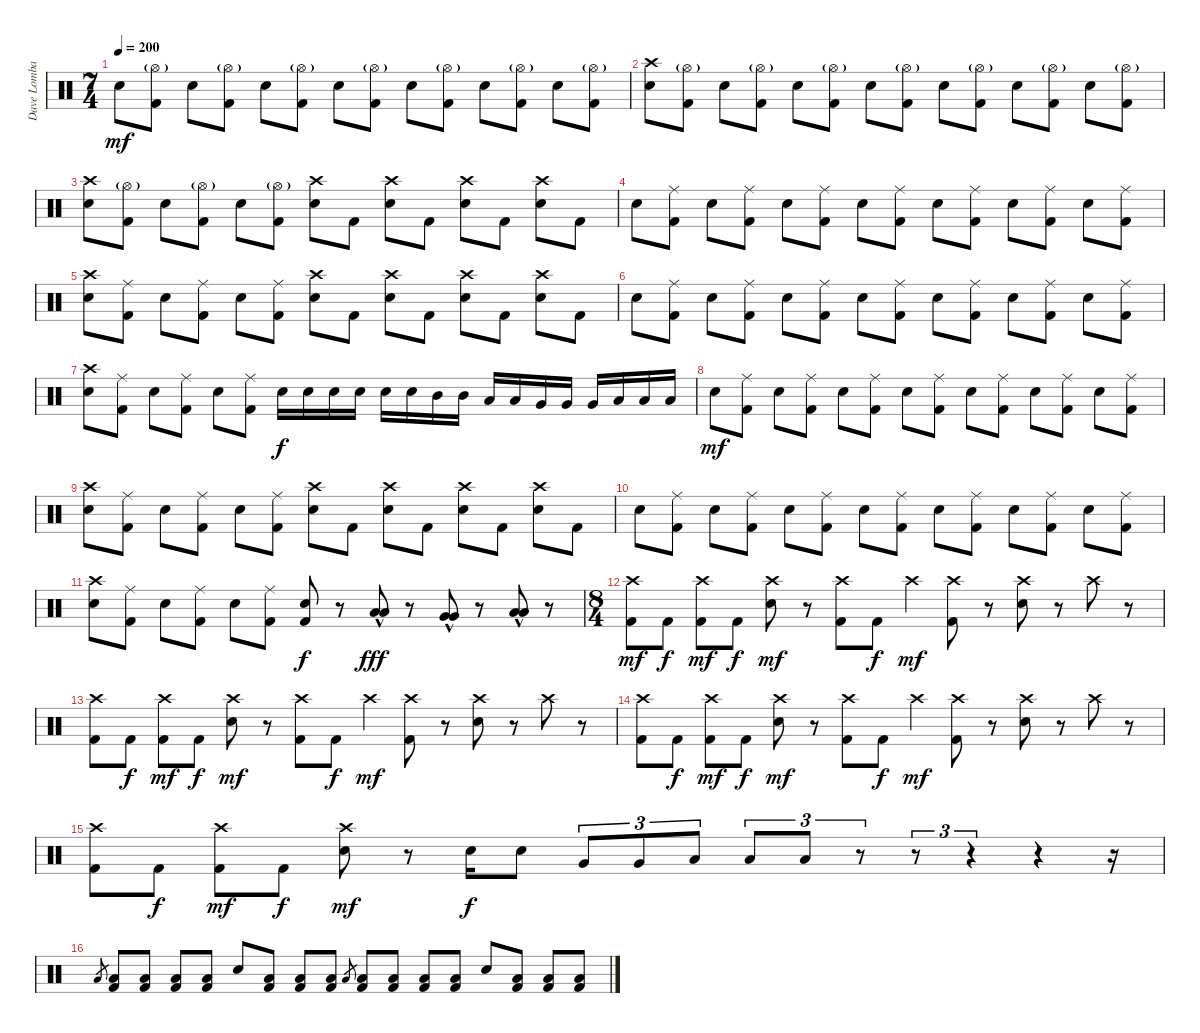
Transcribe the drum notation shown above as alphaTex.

\track ("Dave Lombardo" "Dave Lomba") {instrument percussion}
\staff {score}
\articulation defaults
\ts (7 4)
\tempo 200
\clef neutral
\ks c "Snare (hit) 2".8{dy mf}
("Hi-Hat (open)"{g} "Kick (hit) 2").8 "Snare (hit) 2".8 ("Hi-Hat (open)"{g} "Kick (hit) 2").8 "Snare (hit) 2".8 ("Hi-Hat (open)"{g} "Kick (hit) 2").8 "Snare (hit) 2".8 ("Hi-Hat (open)"{g} "Kick (hit) 2").8 "Snare (hit) 2".8 ("Hi-Hat (open)"{g} "Kick (hit) 2").8 "Snare (hit) 2".8 ("Hi-Hat (open)"{g} "Kick (hit) 2").8 "Snare (hit) 2".8 ("Hi-Hat (open)"{g} "Kick (hit) 2").8 |
("Crash high (hit)" "Snare (hit) 2").8 ("Hi-Hat (open)"{g} "Kick (hit) 2").8 "Snare (hit) 2".8 ("Hi-Hat (open)"{g} "Kick (hit) 2").8 "Snare (hit) 2".8 ("Hi-Hat (open)"{g} "Kick (hit) 2").8 "Snare (hit) 2".8 ("Hi-Hat (open)"{g} "Kick (hit) 2").8 "Snare (hit) 2".8 ("Hi-Hat (open)"{g} "Kick (hit) 2").8 "Snare (hit) 2".8 ("Hi-Hat (open)"{g} "Kick (hit) 2").8 "Snare (hit) 2".8 ("Hi-Hat (open)"{g} "Kick (hit) 2").8 |
("Crash high (hit)" "Snare (hit) 2").8 ("Hi-Hat (open)"{g} "Kick (hit) 2").8 "Snare (hit) 2".8 ("Hi-Hat (open)"{g} "Kick (hit) 2").8 "Snare (hit) 2".8 ("Hi-Hat (open)"{g} "Kick (hit) 2").8 ("Crash high (hit)" "Snare (hit) 2").8 "Kick (hit) 2".8 ("Crash high (hit)" "Snare (hit) 2").8 "Kick (hit) 2".8 ("Crash high (hit)" "Snare (hit) 2").8 "Kick (hit) 2".8 ("Crash high (hit)" "Snare (hit) 2").8 "Kick (hit) 2".8 |
"Snare (hit) 2".8 ("Ride (middle)" "Kick (hit) 2").8 "Snare (hit) 2".8 ("Ride (middle)" "Kick (hit) 2").8 "Snare (hit) 2".8 ("Ride (middle)" "Kick (hit) 2").8 "Snare (hit) 2".8 ("Ride (middle)" "Kick (hit) 2").8 "Snare (hit) 2".8 ("Ride (middle)" "Kick (hit) 2").8 "Snare (hit) 2".8 ("Ride (middle)" "Kick (hit) 2").8 "Snare (hit) 2".8 ("Ride (middle)" "Kick (hit) 2").8 |
("Crash high (hit)" "Snare (hit) 2").8 ("Ride (middle)" "Kick (hit) 2").8 "Snare (hit) 2".8 ("Ride (middle)" "Kick (hit) 2").8 "Snare (hit) 2".8 ("Ride (middle)" "Kick (hit) 2").8 ("Crash high (hit)" "Snare (hit) 2").8 "Kick (hit) 2".8 ("Crash high (hit)" "Snare (hit) 2").8 "Kick (hit) 2".8 ("Crash high (hit)" "Snare (hit) 2").8 "Kick (hit) 2".8 ("Crash high (hit)" "Snare (hit) 2").8 "Kick (hit) 2".8 |
"Snare (hit) 2".8 ("Ride (middle)" "Kick (hit) 2").8 "Snare (hit) 2".8 ("Ride (middle)" "Kick (hit) 2").8 "Snare (hit) 2".8 ("Ride (middle)" "Kick (hit) 2").8 "Snare (hit) 2".8 ("Ride (middle)" "Kick (hit) 2").8 "Snare (hit) 2".8 ("Ride (middle)" "Kick (hit) 2").8 "Snare (hit) 2".8 ("Ride (middle)" "Kick (hit) 2").8 "Snare (hit) 2".8 ("Ride (middle)" "Kick (hit) 2").8 |
("Crash high (hit)" "Snare (hit) 2").8 ("Ride (middle)" "Kick (hit) 2").8 "Snare (hit) 2".8 ("Ride (middle)" "Kick (hit) 2").8 "Snare (hit) 2".8 ("Ride (middle)" "Kick (hit) 2").8 "Snare (hit) 2".16{dy f} "Snare (hit) 2".16 "Snare (hit) 2".16 "Snare (hit) 2".16 "Electric Snare (hit)".16 "Electric Snare (hit)".16 "Mid Tom (hit)".16 "Mid Tom (hit)".16 "Low Tom (hit)".16 "Low Tom (hit)".16 "Very Low Tom (hit)".16 "Very Low Tom (hit)".16 "Very Low Tom (hit)".16 "Low Floor Tom (hit)".16 "Low Floor Tom (hit)".16 "Low Floor Tom (hit)".16 |
"Snare (hit) 2".8{dy mf} ("Ride (middle)" "Kick (hit) 2").8 "Snare (hit) 2".8 ("Ride (middle)" "Kick (hit) 2").8 "Snare (hit) 2".8 ("Ride (middle)" "Kick (hit) 2").8 "Snare (hit) 2".8 ("Ride (middle)" "Kick (hit) 2").8 "Snare (hit) 2".8 ("Ride (middle)" "Kick (hit) 2").8 "Snare (hit) 2".8 ("Ride (middle)" "Kick (hit) 2").8 "Snare (hit) 2".8 ("Ride (middle)" "Kick (hit) 2").8 |
("Crash high (hit)" "Snare (hit) 2").8 ("Ride (middle)" "Kick (hit) 2").8 "Snare (hit) 2".8 ("Ride (middle)" "Kick (hit) 2").8 "Snare (hit) 2".8 ("Ride (middle)" "Kick (hit) 2").8 ("Crash high (hit)" "Snare (hit) 2").8 "Kick (hit) 2".8 ("Crash high (hit)" "Snare (hit) 2").8 "Kick (hit) 2".8 ("Crash high (hit)" "Snare (hit) 2").8 "Kick (hit) 2".8 ("Crash high (hit)" "Snare (hit) 2").8 "Kick (hit) 2".8 |
"Snare (hit) 2".8 ("Ride (middle)" "Kick (hit) 2").8 "Snare (hit) 2".8 ("Ride (middle)" "Kick (hit) 2").8 "Snare (hit) 2".8 ("Ride (middle)" "Kick (hit) 2").8 "Snare (hit) 2".8 ("Ride (middle)" "Kick (hit) 2").8 "Snare (hit) 2".8 ("Ride (middle)" "Kick (hit) 2").8 "Snare (hit) 2".8 ("Ride (middle)" "Kick (hit) 2").8 "Snare (hit) 2".8 ("Ride (middle)" "Kick (hit) 2").8 |
("Crash high (hit)" "Snare (hit) 2").8 ("Ride (middle)" "Kick (hit) 2").8 "Snare (hit) 2".8 ("Ride (middle)" "Kick (hit) 2").8 "Snare (hit) 2".8 ("Ride (middle)" "Kick (hit) 2").8 ("Kick (hit) 2" "Snare (hit) 2").8{dy f} r.8 ("Low Tom (hit)" "Low Tom (hit)"{hac}).8{dy fff} r.8 ("Very Low Tom (hit)" "Very Low Tom (hit)"{hac}).8 r.8 ("Low Floor Tom (hit)" "Low Floor Tom (hit)"{hac}).8 r.8 |
\ts (8 4)
("Crash high (hit)" "Kick (hit) 2").8{dy mf} "Kick (hit) 2".8{dy f} ("Crash high (hit)" "Kick (hit) 2").8{dy mf} "Kick (hit) 2".8{dy f} ("Crash high (hit)" "Snare (hit) 2").8{dy mf} r.8 ("Crash high (hit)" "Kick (hit) 2").8 "Kick (hit) 2".8{dy f} "Crash high (hit)".4{dy mf} ("Crash high (hit)" "Kick (hit) 2").8 r.8 ("Crash high (hit)" "Snare (hit) 2").8 r.8 "Crash high (hit)".8 r.8 |
("Crash high (hit)" "Kick (hit) 2").8 "Kick (hit) 2".8{dy f} ("Crash high (hit)" "Kick (hit) 2").8{dy mf} "Kick (hit) 2".8{dy f} ("Crash high (hit)" "Snare (hit) 2").8{dy mf} r.8 ("Crash high (hit)" "Kick (hit) 2").8 "Kick (hit) 2".8{dy f} "Crash high (hit)".4{dy mf} ("Crash high (hit)" "Kick (hit) 2").8 r.8 ("Crash high (hit)" "Snare (hit) 2").8 r.8 "Crash high (hit)".8 r.8 |
("Crash high (hit)" "Kick (hit) 2").8 "Kick (hit) 2".8{dy f} ("Crash high (hit)" "Kick (hit) 2").8{dy mf} "Kick (hit) 2".8{dy f} ("Crash high (hit)" "Snare (hit) 2").8{dy mf} r.8 ("Crash high (hit)" "Kick (hit) 2").8 "Kick (hit) 2".8{dy f} "Crash high (hit)".4{dy mf} ("Crash high (hit)" "Kick (hit) 2").8 r.8 ("Crash high (hit)" "Snare (hit) 2").8 r.8 "Crash high (hit)".8 r.8 |
("Crash high (hit)" "Kick (hit) 2").8 "Kick (hit) 2".8{dy f} ("Crash high (hit)" "Kick (hit) 2").8{dy mf} "Kick (hit) 2".8{dy f} ("Crash high (hit)" "Snare (hit) 2").8{dy mf} r.8 "Snare (hit) 2".16{dy f} "Snare (hit) 2".8 "Very Low Tom (hit)".8{tu (3 2)} "Very Low Tom (hit)".8{tu (3 2)} "Low Floor Tom (hit)".8{tu (3 2)} "Low Floor Tom (hit)".8{tu (3 2)} "Low Floor Tom (hit)".8{tu (3 2)} r.8{tu (3 2)} r.8{tu (3 2)} r.4{tu (3 2)} r.4 r.16 |
"Low Floor Tom (hit)".8{gr} ("Low Floor Tom (hit)" "Kick (hit) 2").8 ("Low Floor Tom (hit)" "Kick (hit) 2").8 ("Low Floor Tom (hit)" "Kick (hit) 2").8 ("Low Floor Tom (hit)" "Kick (hit) 2").8 "Electric Snare (hit)".8 ("Low Floor Tom (hit)" "Kick (hit) 2").8 ("Low Floor Tom (hit)" "Kick (hit) 2").8 ("Low Floor Tom (hit)" "Kick (hit) 2").8 "Low Floor Tom (hit)".8{gr} ("Low Floor Tom (hit)" "Kick (hit) 2").8 ("Low Floor Tom (hit)" "Kick (hit) 2").8 ("Low Floor Tom (hit)" "Kick (hit) 2").8 ("Low Floor Tom (hit)" "Kick (hit) 2").8 "Electric Snare (hit)".8 ("Low Floor Tom (hit)" "Kick (hit) 2").8 ("Low Floor Tom (hit)" "Kick (hit) 2").8 ("Low Floor Tom (hit)" "Kick (hit) 2").8
